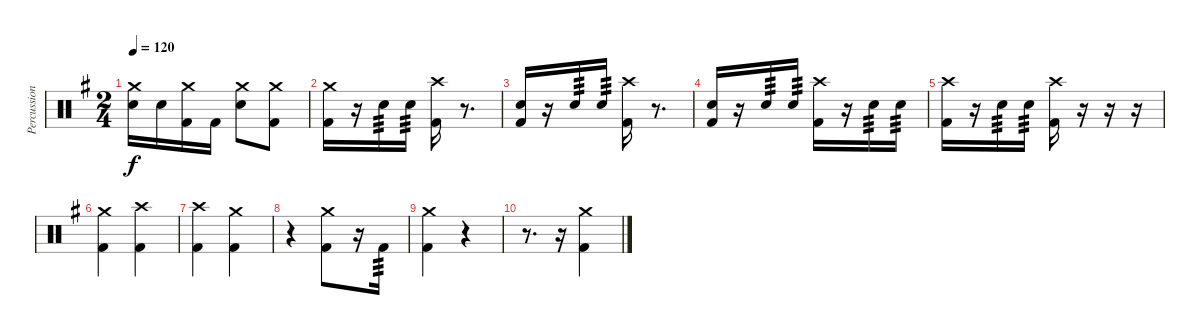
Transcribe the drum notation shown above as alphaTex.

\track ("Percussion" "Percussion") {instrument percussion}
\staff {score}
\articulation defaults
\ts (2 4)
\tempo 120
\clef neutral
\ks g
("Crash medium (hit)" "Snare (hit) 2").16{dy f} "Snare (hit) 2".16 ("Crash medium (hit)" "Kick (hit) 2").16 "Kick (hit) 2".16 ("Crash medium (hit)" "Snare (hit) 2").8 ("Crash medium (hit)" "Kick (hit) 2").8 |
("Crash medium (hit)" "Kick (hit) 2").16 r.16 "Snare (hit) 2".16{tp 3} "Snare (hit) 2".16{tp 3} ("Crash high (hit)" "Kick (hit) 2").16 r.8{d} |
("Snare (hit) 2" "Kick (hit) 2").16 r.16 "Snare (hit) 2".16{tp 3} "Snare (hit) 2".16{tp 3} ("Crash high (hit)" "Kick (hit) 2").16 r.8{d} |
("Snare (hit) 2" "Kick (hit) 2").16 r.16 "Snare (hit) 2".16{tp 3} "Snare (hit) 2".16{tp 3} ("Crash high (hit)" "Kick (hit) 2").16 r.16 "Snare (hit) 2".16{tp 3} "Snare (hit) 2".16{tp 3} |
("Crash high (hit)" "Kick (hit) 2").16 r.16 "Snare (hit) 2".16{tp 3} "Snare (hit) 2".16{tp 3} ("Crash high (hit)" "Kick (hit) 2").16 r.16 r.16 r.16 |
("Crash medium (hit)" "Kick (hit) 2").4 ("Crash high (hit)" "Kick (hit) 2").4 |
("Crash high (hit)" "Kick (hit) 2").4 ("Crash medium (hit)" "Kick (hit) 2").4 |
r.4 ("Crash medium (hit)" "Kick (hit) 2").8 r.16 "Kick (hit) 2".16{tp 3} |
("Crash medium (hit)" "Kick (hit) 2").4 r.4 |
r.8{d} r.16 ("Crash medium (hit)" "Kick (hit) 2").4
